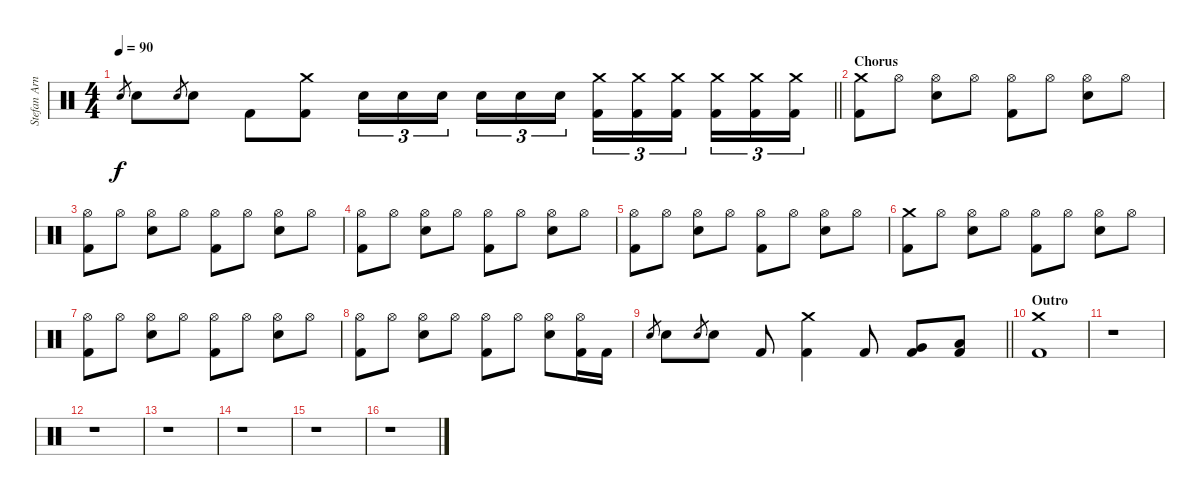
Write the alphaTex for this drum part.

\track ("Stefan Arnold" "Stefan Arn") {instrument percussion}
\staff {score}
\articulation defaults
\ts (4 4)
\tempo 90
\clef neutral
\barLineRight lightlight
\ks c "Electric Snare (hit)".8{gr dy f} "Electric Snare (hit)".8 "Electric Snare (hit)".8{gr} "Electric Snare (hit)".8 "Kick (hit) 2".8
("Crash medium (hit)" "Kick (hit) 2").8 "Electric Snare (hit)".16{tu (3 2)} "Electric Snare (hit)".16{tu (3 2)} "Electric Snare (hit)".16{tu (3 2) beam splitsecondary} "Electric Snare (hit)".16{tu (3 2)} "Electric Snare (hit)".16{tu (3 2)} "Electric Snare (hit)".16{tu (3 2)} ("Crash medium (hit)" "Kick (hit) 2").16{tu (3 2)} ("Crash medium (hit)" "Kick (hit) 2").16{tu (3 2)} ("Crash medium (hit)" "Kick (hit) 2").16{tu (3 2) beam splitsecondary} ("Crash medium (hit)" "Kick (hit) 2").16{tu (3 2)} ("Crash medium (hit)" "Kick (hit) 2").16{tu (3 2)} ("Crash medium (hit)" "Kick (hit) 2").16{tu (3 2)} |
\section ("" "Chorus")
("Crash medium (hit)" "Kick (hit) 2").8 "Hi-Hat (open)".8 ("Hi-Hat (open)" "Electric Snare (hit)").8 "Hi-Hat (open)".8 ("Hi-Hat (open)" "Kick (hit) 2").8 "Hi-Hat (open)".8 ("Hi-Hat (open)" "Electric Snare (hit)").8 "Hi-Hat (open)".8 |
("Hi-Hat (open)" "Kick (hit) 2").8 "Hi-Hat (open)".8 ("Hi-Hat (open)" "Electric Snare (hit)").8 "Hi-Hat (open)".8 ("Hi-Hat (open)" "Kick (hit) 2").8 "Hi-Hat (open)".8 ("Hi-Hat (open)" "Electric Snare (hit)").8 "Hi-Hat (open)".8 |
("Hi-Hat (open)" "Kick (hit) 2").8 "Hi-Hat (open)".8 ("Hi-Hat (open)" "Electric Snare (hit)").8 "Hi-Hat (open)".8 ("Hi-Hat (open)" "Kick (hit) 2").8 "Hi-Hat (open)".8 ("Hi-Hat (open)" "Electric Snare (hit)").8 "Hi-Hat (open)".8 |
("Hi-Hat (open)" "Kick (hit) 2").8 "Hi-Hat (open)".8 ("Hi-Hat (open)" "Electric Snare (hit)").8 "Hi-Hat (open)".8 ("Hi-Hat (open)" "Kick (hit) 2").8 "Hi-Hat (open)".8 ("Hi-Hat (open)" "Electric Snare (hit)").8 "Hi-Hat (open)".8 |
("Crash medium (hit)" "Kick (hit) 2").8 "Hi-Hat (open)".8 ("Hi-Hat (open)" "Electric Snare (hit)").8 "Hi-Hat (open)".8 ("Hi-Hat (open)" "Kick (hit) 2").8 "Hi-Hat (open)".8 ("Hi-Hat (open)" "Electric Snare (hit)").8 "Hi-Hat (open)".8 |
("Hi-Hat (open)" "Kick (hit) 2").8 "Hi-Hat (open)".8 ("Hi-Hat (open)" "Electric Snare (hit)").8 "Hi-Hat (open)".8 ("Hi-Hat (open)" "Kick (hit) 2").8 "Hi-Hat (open)".8 ("Hi-Hat (open)" "Electric Snare (hit)").8 "Hi-Hat (open)".8 |
("Hi-Hat (open)" "Kick (hit) 2").8 "Hi-Hat (open)".8 ("Hi-Hat (open)" "Electric Snare (hit)").8 "Hi-Hat (open)".8 ("Hi-Hat (open)" "Kick (hit) 2").8 "Hi-Hat (open)".8 ("Hi-Hat (open)" "Electric Snare (hit)").8 ("Hi-Hat (open)" "Kick (hit) 2").16 "Kick (hit) 2".16 |
\barLineRight lightlight "Electric Snare (hit)".8{gr} "Electric Snare (hit)".8 "Electric Snare (hit)".8{gr} "Electric Snare (hit)".8 "Kick (hit) 2".8
("Crash medium (hit)" "Kick (hit) 2").4 "Kick (hit) 2".8 ("Very Low Tom (hit)" "Kick (hit) 2").8 ("Low Floor Tom (hit)" "Kick (hit) 2").8 |
\section ("" "Outro")
("Crash medium (hit)" "Kick (hit) 2").1 |
r.1 |
r.1 |
r.1 |
r.1 |
r.1 |
r.1
